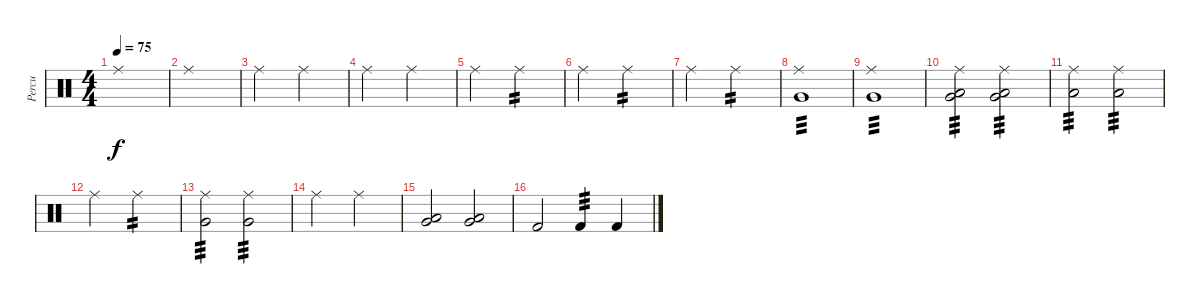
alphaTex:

\track ("Percu" "Percu") {instrument percussion}
\staff {score}
\articulation defaults
\ts (4 4)
\tempo 75
\clef neutral
\ks c "Ride (middle)".1{dy f}
|
"Ride (middle)".1 |
"Ride (middle)".2 "Ride (middle)".2 |
"Ride (middle)".2 "Ride (middle)".2 |
"Ride (middle)".2 "Ride (middle)".2{tp 2} |
"Ride (middle)".2 "Ride (middle)".2{tp 2} |
"Ride (middle)".2 "Ride (middle)".2{tp 2} |
("Ride (middle)" "Very Low Tom (hit)").1{tp 3} |
("Ride (middle)" "Very Low Tom (hit)").1{tp 3} |
("Low Floor Tom (hit)" "Ride (middle)" "Very Low Tom (hit)").2{tp 3} ("Low Floor Tom (hit)" "Ride (middle)" "Very Low Tom (hit)").2{tp 3} |
("Ride (middle)" "Low Floor Tom (hit)").2{tp 3} ("Ride (middle)" "Low Floor Tom (hit)").2{tp 3} |
"Ride (middle)".2 "Ride (middle)".2{tp 2} |
("Ride (middle)" "Very Low Tom (hit)").2{tp 3} ("Ride (middle)" "Very Low Tom (hit)").2{tp 3} |
"Ride (middle)".2 "Ride (middle)".2 |
("Very Low Tom (hit)" "Low Floor Tom (hit)").2 ("Very Low Tom (hit)" "Low Floor Tom (hit)").2 |
"Kick (hit) 2".2 "Kick (hit) 2".4{tp 3} "Kick (hit) 2".4
